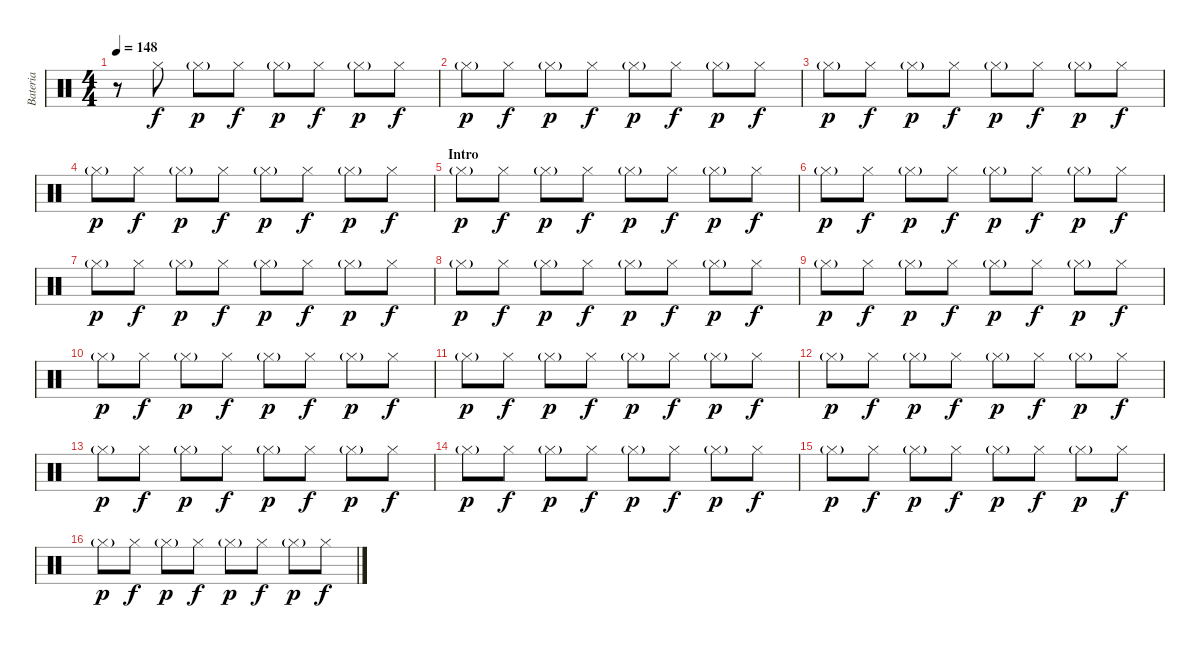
\track ("Bateria" "Bateria") {instrument percussion}
\staff {score}
\articulation defaults
\ts (4 4)
\tempo 148
\clef neutral
\ks c
r.8{dy f} "Hi-Hat (closed)".8{volume 6} "Hi-Hat (closed)"{g}.8{dy p} "Hi-Hat (closed)".8{dy f volume 13} "Hi-Hat (closed)"{g}.8{dy p} "Hi-Hat (closed)".8{dy f} "Hi-Hat (closed)"{g}.8{dy p} "Hi-Hat (closed)".8{dy f} |
"Hi-Hat (closed)"{g}.8{dy p} "Hi-Hat (closed)".8{dy f} "Hi-Hat (closed)"{g}.8{dy p} "Hi-Hat (closed)".8{dy f} "Hi-Hat (closed)"{g}.8{dy p} "Hi-Hat (closed)".8{dy f} "Hi-Hat (closed)"{g}.8{dy p} "Hi-Hat (closed)".8{dy f} |
"Hi-Hat (closed)"{g}.8{dy p} "Hi-Hat (closed)".8{dy f} "Hi-Hat (closed)"{g}.8{dy p} "Hi-Hat (closed)".8{dy f} "Hi-Hat (closed)"{g}.8{dy p} "Hi-Hat (closed)".8{dy f} "Hi-Hat (closed)"{g}.8{dy p} "Hi-Hat (closed)".8{dy f} |
"Hi-Hat (closed)"{g}.8{dy p} "Hi-Hat (closed)".8{dy f} "Hi-Hat (closed)"{g}.8{dy p} "Hi-Hat (closed)".8{dy f} "Hi-Hat (closed)"{g}.8{dy p} "Hi-Hat (closed)".8{dy f} "Hi-Hat (closed)"{g}.8{dy p} "Hi-Hat (closed)".8{dy f} |
\section ("" "Intro")
"Hi-Hat (closed)"{g}.8{dy p} "Hi-Hat (closed)".8{dy f} "Hi-Hat (closed)"{g}.8{dy p} "Hi-Hat (closed)".8{dy f} "Hi-Hat (closed)"{g}.8{dy p} "Hi-Hat (closed)".8{dy f} "Hi-Hat (closed)"{g}.8{dy p} "Hi-Hat (closed)".8{dy f} |
"Hi-Hat (closed)"{g}.8{dy p} "Hi-Hat (closed)".8{dy f} "Hi-Hat (closed)"{g}.8{dy p} "Hi-Hat (closed)".8{dy f} "Hi-Hat (closed)"{g}.8{dy p} "Hi-Hat (closed)".8{dy f} "Hi-Hat (closed)"{g}.8{dy p} "Hi-Hat (closed)".8{dy f} |
"Hi-Hat (closed)"{g}.8{dy p} "Hi-Hat (closed)".8{dy f} "Hi-Hat (closed)"{g}.8{dy p} "Hi-Hat (closed)".8{dy f} "Hi-Hat (closed)"{g}.8{dy p} "Hi-Hat (closed)".8{dy f} "Hi-Hat (closed)"{g}.8{dy p} "Hi-Hat (closed)".8{dy f} |
"Hi-Hat (closed)"{g}.8{dy p} "Hi-Hat (closed)".8{dy f} "Hi-Hat (closed)"{g}.8{dy p} "Hi-Hat (closed)".8{dy f} "Hi-Hat (closed)"{g}.8{dy p} "Hi-Hat (closed)".8{dy f} "Hi-Hat (closed)"{g}.8{dy p} "Hi-Hat (closed)".8{dy f} |
"Hi-Hat (closed)"{g}.8{dy p} "Hi-Hat (closed)".8{dy f} "Hi-Hat (closed)"{g}.8{dy p} "Hi-Hat (closed)".8{dy f} "Hi-Hat (closed)"{g}.8{dy p} "Hi-Hat (closed)".8{dy f} "Hi-Hat (closed)"{g}.8{dy p} "Hi-Hat (closed)".8{dy f} |
"Hi-Hat (closed)"{g}.8{dy p} "Hi-Hat (closed)".8{dy f} "Hi-Hat (closed)"{g}.8{dy p} "Hi-Hat (closed)".8{dy f} "Hi-Hat (closed)"{g}.8{dy p} "Hi-Hat (closed)".8{dy f} "Hi-Hat (closed)"{g}.8{dy p} "Hi-Hat (closed)".8{dy f} |
"Hi-Hat (closed)"{g}.8{dy p} "Hi-Hat (closed)".8{dy f} "Hi-Hat (closed)"{g}.8{dy p} "Hi-Hat (closed)".8{dy f} "Hi-Hat (closed)"{g}.8{dy p} "Hi-Hat (closed)".8{dy f} "Hi-Hat (closed)"{g}.8{dy p} "Hi-Hat (closed)".8{dy f} |
"Hi-Hat (closed)"{g}.8{dy p} "Hi-Hat (closed)".8{dy f} "Hi-Hat (closed)"{g}.8{dy p} "Hi-Hat (closed)".8{dy f} "Hi-Hat (closed)"{g}.8{dy p} "Hi-Hat (closed)".8{dy f} "Hi-Hat (closed)"{g}.8{dy p} "Hi-Hat (closed)".8{dy f} |
"Hi-Hat (closed)"{g}.8{dy p} "Hi-Hat (closed)".8{dy f} "Hi-Hat (closed)"{g}.8{dy p} "Hi-Hat (closed)".8{dy f} "Hi-Hat (closed)"{g}.8{dy p} "Hi-Hat (closed)".8{dy f} "Hi-Hat (closed)"{g}.8{dy p} "Hi-Hat (closed)".8{dy f} |
"Hi-Hat (closed)"{g}.8{dy p} "Hi-Hat (closed)".8{dy f} "Hi-Hat (closed)"{g}.8{dy p} "Hi-Hat (closed)".8{dy f} "Hi-Hat (closed)"{g}.8{dy p} "Hi-Hat (closed)".8{dy f} "Hi-Hat (closed)"{g}.8{dy p} "Hi-Hat (closed)".8{dy f} |
"Hi-Hat (closed)"{g}.8{dy p} "Hi-Hat (closed)".8{dy f} "Hi-Hat (closed)"{g}.8{dy p} "Hi-Hat (closed)".8{dy f} "Hi-Hat (closed)"{g}.8{dy p} "Hi-Hat (closed)".8{dy f} "Hi-Hat (closed)"{g}.8{dy p} "Hi-Hat (closed)".8{dy f} |
"Hi-Hat (closed)"{g}.8{dy p} "Hi-Hat (closed)".8{dy f} "Hi-Hat (closed)"{g}.8{dy p} "Hi-Hat (closed)".8{dy f} "Hi-Hat (closed)"{g}.8{dy p} "Hi-Hat (closed)".8{dy f} "Hi-Hat (closed)"{g}.8{dy p} "Hi-Hat (closed)".8{dy f}
